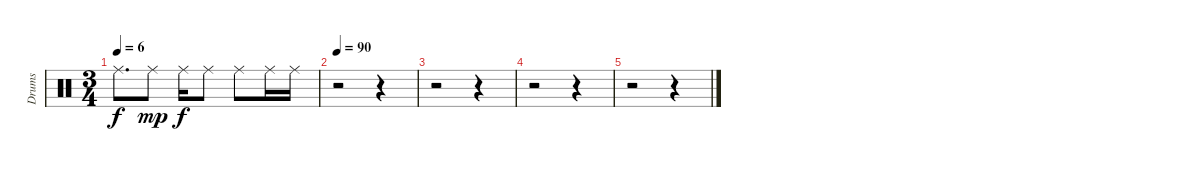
\track ("Drums" "Drums") {instrument percussion}
\staff {score}
\articulation defaults
\ts (3 4)
\tempo 6
\clef neutral
\ks c "Ride (middle)".8{d dy f} "Ride (middle)".8{dy mp} "Ride (middle)".16{dy f} "Ride (middle)".8 "Ride (middle)".8 "Ride (middle)".16 "Ride (middle)".16
|
\tempo 90
r.2 r.4 |
r.2 r.4 |
r.2 r.4 |
r.2 r.4
